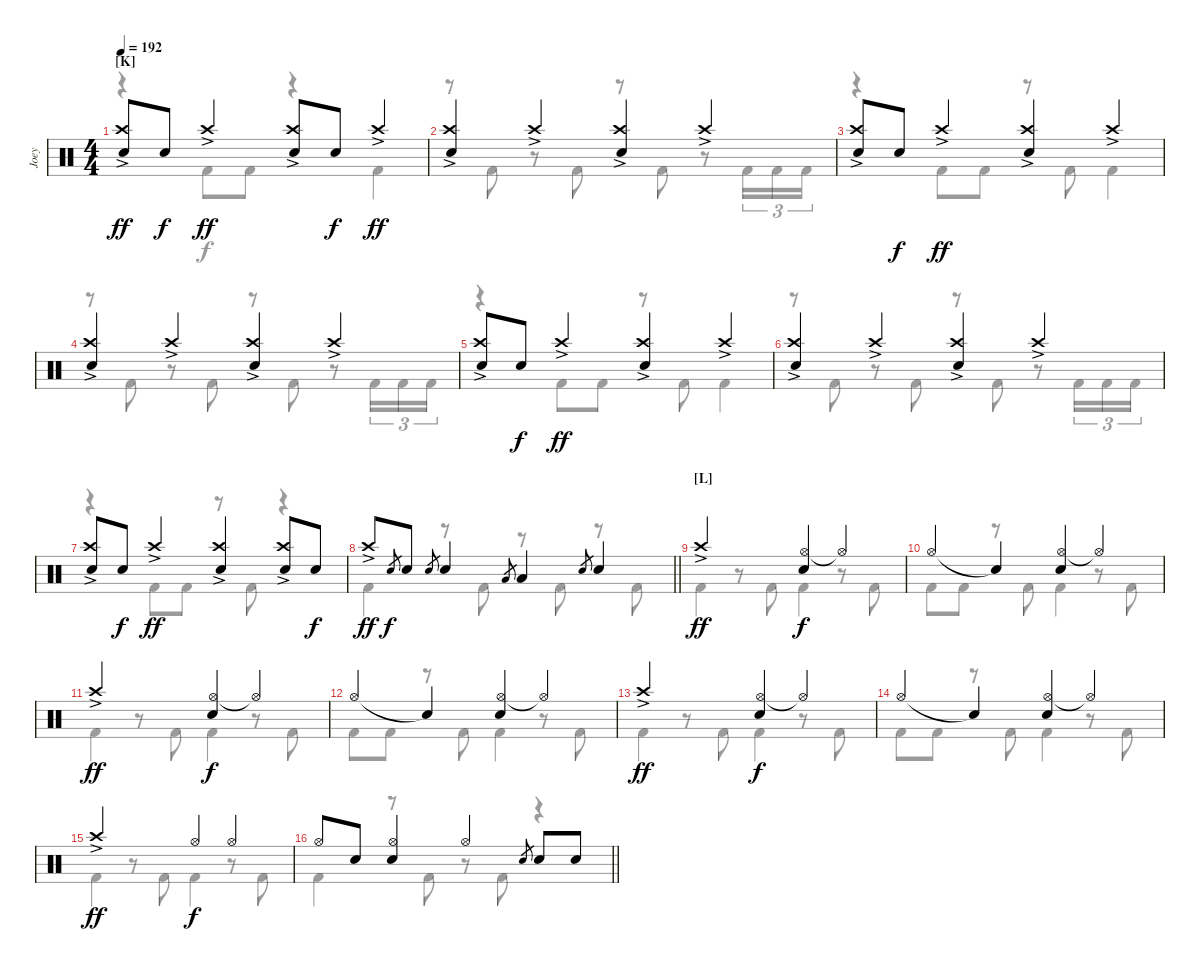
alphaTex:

\track ("Joey" "Joey") {instrument percussion}
\staff {score}
\articulation defaults
\voice
\ts (4 4)
\section ("" "[K]")
\tempo 192
\clef neutral
\ks c
("Crash high (hit)"{ac} "Snare (hit) 2").8{dy ff} "Snare (hit) 2".8{dy f} "Crash high (hit)"{ac}.4{dy ff} ("Crash high (hit)"{ac} "Snare (hit) 2").8 "Snare (hit) 2".8{dy f} "Crash high (hit)"{ac}.4{dy ff} |
("Crash high (hit)"{ac} "Snare (hit) 2").4 "Crash high (hit)"{ac}.4 ("Crash high (hit)"{ac} "Snare (hit) 2").4 "Crash high (hit)"{ac}.4 |
("Crash high (hit)"{ac} "Snare (hit) 2").8 "Snare (hit) 2".8{dy f} "Crash high (hit)"{ac}.4{dy ff} ("Crash high (hit)"{ac} "Snare (hit) 2").4 "Crash high (hit)"{ac}.4 |
("Crash high (hit)"{ac} "Snare (hit) 2").4 "Crash high (hit)"{ac}.4 ("Crash high (hit)"{ac} "Snare (hit) 2").4 "Crash high (hit)"{ac}.4 |
("Crash high (hit)"{ac} "Snare (hit) 2").8 "Snare (hit) 2".8{dy f} "Crash high (hit)"{ac}.4{dy ff} ("Crash high (hit)"{ac} "Snare (hit) 2").4 "Crash high (hit)"{ac}.4 |
("Crash high (hit)"{ac} "Snare (hit) 2").4 "Crash high (hit)"{ac}.4 ("Crash high (hit)"{ac} "Snare (hit) 2").4 "Crash high (hit)"{ac}.4 |
("Crash high (hit)"{ac} "Snare (hit) 2").8 "Snare (hit) 2".8{dy f} "Crash high (hit)"{ac}.4{dy ff} ("Crash high (hit)"{ac} "Snare (hit) 2").4 ("Crash high (hit)"{ac} "Snare (hit) 2").8 "Snare (hit) 2".8{dy f} |
\barLineRight lightlight "Crash high (hit)"{ac}.8{dy ff} "Snare (hit) 2".8{gr dy f} "Snare (hit) 2".8 "Snare (hit) 2".8{gr} "Snare (hit) 2".4 "Low Tom (hit)".8{gr} "Low Tom (hit)".4 "Snare (hit) 2".8{gr} "Snare (hit) 2".4
|
\section ("" "[L]")
"Crash high (hit)"{ac}.2{dy ff} ("Hi-Hat (open)" "Snare (hit) 2").4{dy f} "Hi-Hat (open)"{t}.4 |
"Hi-Hat (open)".4 "Snare (hit)"{t}.4 ("Hi-Hat (open)" "Snare (hit) 2").4 "Hi-Hat (open)"{t}.4 |
"Crash high (hit)"{ac}.2{dy ff} ("Hi-Hat (open)" "Snare (hit) 2").4{dy f} "Hi-Hat (open)"{t}.4 |
"Hi-Hat (open)".4 "Snare (hit)"{t}.4 ("Hi-Hat (open)" "Snare (hit) 2").4 "Hi-Hat (open)"{t}.4 |
"Crash high (hit)"{ac}.2{dy ff} ("Hi-Hat (open)" "Snare (hit) 2").4{dy f} "Hi-Hat (open)"{t}.4 |
"Hi-Hat (open)".4 "Snare (hit)"{t}.4 ("Hi-Hat (open)" "Snare (hit) 2").4 "Hi-Hat (open)"{t}.4 |
"Crash high (hit)"{ac}.2{dy ff} "Hi-Hat (open)".4{dy f} "Hi-Hat (open)".4 |
\barLineRight lightlight "Hi-Hat (open)".8 "Snare (hit) 2".8
("Hi-Hat (open)" "Snare (hit) 2").4 "Hi-Hat (open)".4 "Snare (hit) 2".8{gr} "Snare (hit) 2".8 "Snare (hit) 2".8
\voice
\clef neutral
\ottava regular
\simile none
\ks c
r.4{dy f} "Kick (hit) 2".8 "Kick (hit) 2".8 r.4 "Kick (hit) 2".4 |
r.8 "Kick (hit) 2".8 r.8 "Kick (hit) 2".8 r.8 "Kick (hit) 2".8 r.8 "Kick (hit) 2".16{tu (3 2)} "Kick (hit) 2".16{tu (3 2)} "Kick (hit) 2".16{tu (3 2)} |
r.4 "Kick (hit) 2".8 "Kick (hit) 2".8 r.8 "Kick (hit) 2".8 "Kick (hit) 2".4 |
r.8 "Kick (hit) 2".8 r.8 "Kick (hit) 2".8 r.8 "Kick (hit) 2".8 r.8 "Kick (hit) 2".16{tu (3 2)} "Kick (hit) 2".16{tu (3 2)} "Kick (hit) 2".16{tu (3 2)} |
r.4 "Kick (hit) 2".8 "Kick (hit) 2".8 r.8 "Kick (hit) 2".8 "Kick (hit) 2".4 |
r.8 "Kick (hit) 2".8 r.8 "Kick (hit) 2".8 r.8 "Kick (hit) 2".8 r.8 "Kick (hit) 2".16{tu (3 2)} "Kick (hit) 2".16{tu (3 2)} "Kick (hit) 2".16{tu (3 2)} |
r.4 "Kick (hit) 2".8 "Kick (hit) 2".8 r.8 "Kick (hit) 2".8 r.4 |
\barLineRight lightlight "Kick (hit) 2".4
r.8 "Kick (hit) 2".8 r.8 "Kick (hit) 2".8 r.8 "Kick (hit) 2".8 |
"Kick (hit) 2".4 r.8 "Kick (hit) 2".8 "Kick (hit) 2".4 r.8 "Kick (hit) 2".8 |
"Kick (hit) 2".8 "Kick (hit) 2".8 r.8 "Kick (hit) 2".8 "Kick (hit) 2".4 r.8 "Kick (hit) 2".8 |
"Kick (hit) 2".4 r.8 "Kick (hit) 2".8 "Kick (hit) 2".4 r.8 "Kick (hit) 2".8 |
"Kick (hit) 2".8 "Kick (hit) 2".8 r.8 "Kick (hit) 2".8 "Kick (hit) 2".4 r.8 "Kick (hit) 2".8 |
"Kick (hit) 2".4 r.8 "Kick (hit) 2".8 "Kick (hit) 2".4 r.8 "Kick (hit) 2".8 |
"Kick (hit) 2".8 "Kick (hit) 2".8 r.8 "Kick (hit) 2".8 "Kick (hit) 2".4 r.8 "Kick (hit) 2".8 |
"Kick (hit) 2".4 r.8 "Kick (hit) 2".8 "Kick (hit) 2".4 r.8 "Kick (hit) 2".8 |
\barLineRight lightlight "Kick (hit) 2".4
r.8 "Kick (hit) 2".8 r.8 "Kick (hit) 2".8 r.4
